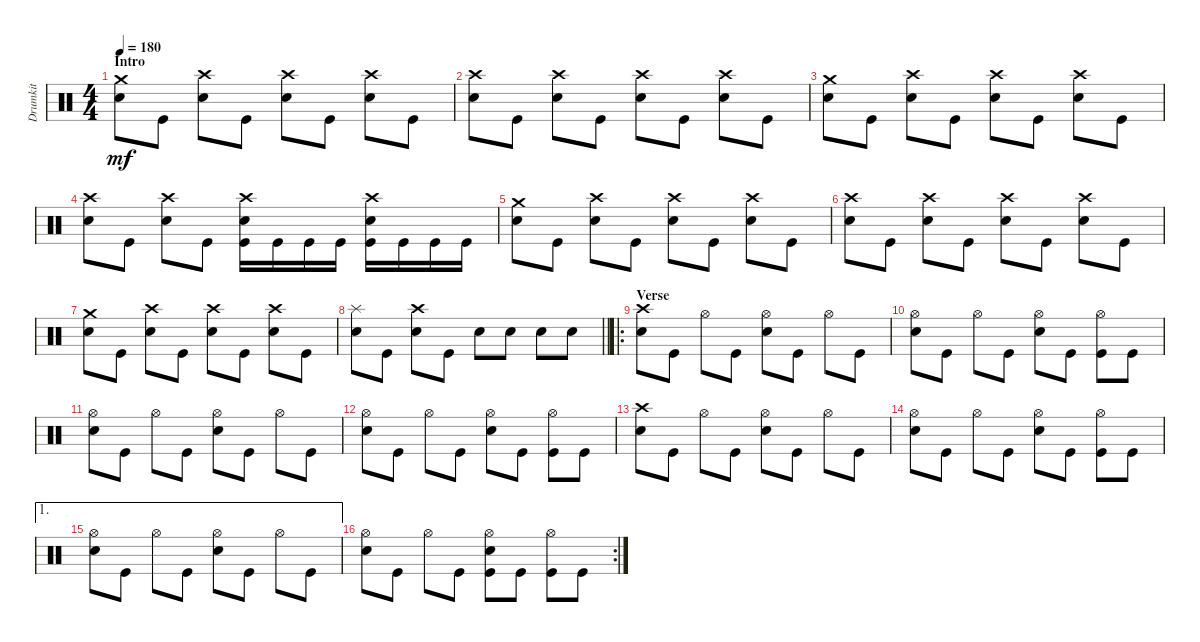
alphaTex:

\track ("Drumkit" "Drumkit") {instrument percussion}
\staff {score}
\articulation defaults
\ts (4 4)
\section ("" "Intro")
\tempo 180
\clef neutral
\ks c
("Snare (hit) 2" "Crash medium (hit)").8{dy mf} "Kick (hit)".8 ("Snare (hit) 2" "Crash high (hit)").8 "Kick (hit)".8 ("Snare (hit) 2" "Crash high (hit)").8 "Kick (hit)".8 ("Snare (hit) 2" "Crash high (hit)").8 "Kick (hit)".8 |
("Snare (hit) 2" "Crash high (hit)").8 "Kick (hit)".8 ("Snare (hit) 2" "Crash high (hit)").8 "Kick (hit)".8 ("Snare (hit) 2" "Crash high (hit)").8 "Kick (hit)".8 ("Snare (hit) 2" "Crash high (hit)").8 "Kick (hit)".8 |
("Snare (hit) 2" "Crash medium (hit)").8 "Kick (hit)".8 ("Snare (hit) 2" "Crash high (hit)").8 "Kick (hit)".8 ("Snare (hit) 2" "Crash high (hit)").8 "Kick (hit)".8 ("Snare (hit) 2" "Crash high (hit)").8 "Kick (hit)".8 |
("Snare (hit) 2" "Crash high (hit)").8 "Kick (hit)".8 ("Snare (hit) 2" "Crash high (hit)").8 "Kick (hit)".8 ("Kick (hit)" "Snare (hit) 2" "Crash high (hit)").16 "Kick (hit)".16 "Kick (hit)".16 "Kick (hit)".16 ("Kick (hit)" "Snare (hit) 2" "Crash high (hit)").16 "Kick (hit)".16 "Kick (hit)".16 "Kick (hit)".16 |
("Snare (hit) 2" "Crash medium (hit)").8 "Kick (hit)".8 ("Snare (hit) 2" "Crash high (hit)").8 "Kick (hit)".8 ("Snare (hit) 2" "Crash high (hit)").8 "Kick (hit)".8 ("Snare (hit) 2" "Crash high (hit)").8 "Kick (hit)".8 |
("Snare (hit) 2" "Crash high (hit)").8 "Kick (hit)".8 ("Snare (hit) 2" "Crash high (hit)").8 "Kick (hit)".8 ("Snare (hit) 2" "Crash high (hit)").8 "Kick (hit)".8 ("Snare (hit) 2" "Crash high (hit)").8 "Kick (hit)".8 |
("Snare (hit) 2" "Crash medium (hit)").8 "Kick (hit)".8 ("Snare (hit) 2" "Crash high (hit)").8 "Kick (hit)".8 ("Snare (hit) 2" "Crash high (hit)").8 "Kick (hit)".8 ("Snare (hit) 2" "Crash high (hit)").8 "Kick (hit)".8 |
\barLineRight lightlight
("Snare (hit) 2" "Splash (hit)").8 "Kick (hit)".8 ("Snare (hit) 2" "Crash high (hit)").8 "Kick (hit)".8 "Snare (hit) 2".8 "Snare (hit) 2".8 "Snare (hit) 2".8 "Snare (hit) 2".8 |
\ro
\section ("" "Verse")
("Snare (hit) 2" "Crash high (hit)").8 "Kick (hit)".8 "Hi-Hat (open)".8 "Kick (hit)".8 ("Snare (hit) 2" "Hi-Hat (open)").8 "Kick (hit)".8 "Hi-Hat (open)".8 "Kick (hit)".8 |
("Snare (hit) 2" "Hi-Hat (open)").8 "Kick (hit)".8 "Hi-Hat (open)".8 "Kick (hit)".8 ("Snare (hit) 2" "Hi-Hat (open)").8 "Kick (hit)".8 ("Hi-Hat (open)" "Kick (hit)").8 "Kick (hit)".8 |
("Snare (hit) 2" "Hi-Hat (open)").8 "Kick (hit)".8 "Hi-Hat (open)".8 "Kick (hit)".8 ("Snare (hit) 2" "Hi-Hat (open)").8 "Kick (hit)".8 "Hi-Hat (open)".8 "Kick (hit)".8 |
("Snare (hit) 2" "Hi-Hat (open)").8 "Kick (hit)".8 "Hi-Hat (open)".8 "Kick (hit)".8 ("Snare (hit) 2" "Hi-Hat (open)").8 "Kick (hit)".8 ("Hi-Hat (open)" "Kick (hit)").8 "Kick (hit)".8 |
("Snare (hit) 2" "Crash high (hit)").8 "Kick (hit)".8 "Hi-Hat (open)".8 "Kick (hit)".8 ("Snare (hit) 2" "Hi-Hat (open)").8 "Kick (hit)".8 "Hi-Hat (open)".8 "Kick (hit)".8 |
("Snare (hit) 2" "Hi-Hat (open)").8 "Kick (hit)".8 "Hi-Hat (open)".8 "Kick (hit)".8 ("Snare (hit) 2" "Hi-Hat (open)").8 "Kick (hit)".8 ("Hi-Hat (open)" "Kick (hit)").8 "Kick (hit)".8 |
\ae 1
("Snare (hit) 2" "Hi-Hat (open)").8 "Kick (hit)".8 "Hi-Hat (open)".8 "Kick (hit)".8 ("Snare (hit) 2" "Hi-Hat (open)").8 "Kick (hit)".8 "Hi-Hat (open)".8 "Kick (hit)".8 |
\rc 2
("Snare (hit) 2" "Hi-Hat (open)").8 "Kick (hit)".8 "Hi-Hat (open)".8 "Kick (hit)".8 ("Snare (hit) 2" "Hi-Hat (open)" "Kick (hit)").8 "Kick (hit)".8 ("Hi-Hat (open)" "Kick (hit)").8 "Kick (hit)".8
